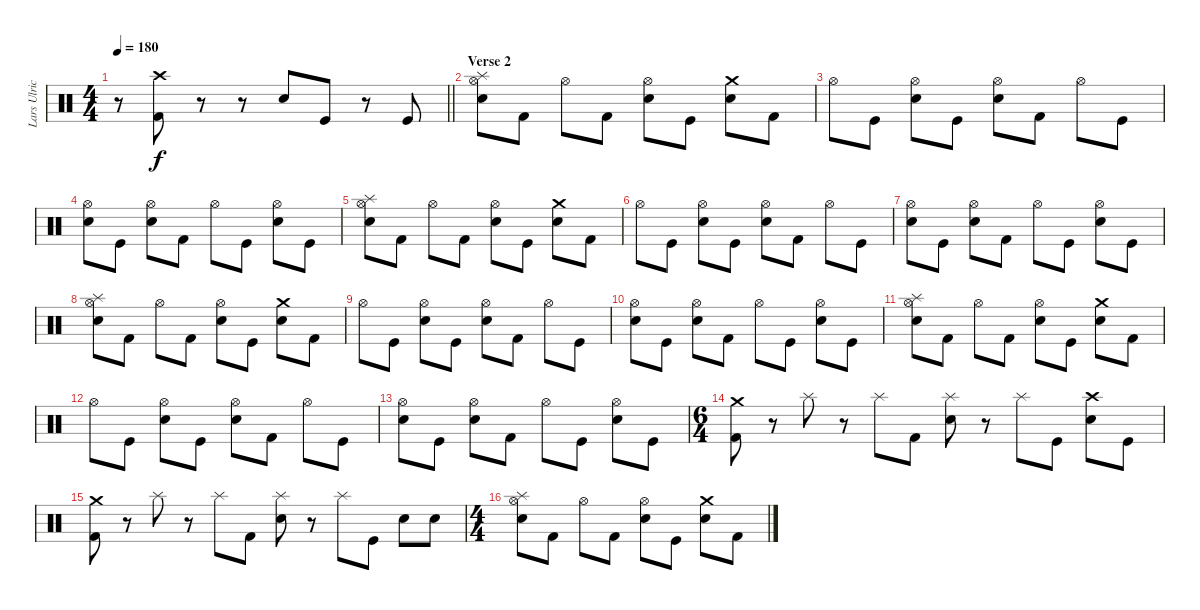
\track ("Lars Ulrich" "Lars Ulric") {instrument percussion}
\staff {score}
\articulation defaults
\ts (4 4)
\tempo 180
\clef neutral
\barLineRight lightlight
\ks c
r.8{dy f} ("Crash high (hit)" "Kick (hit) 2").8 r.8 r.8 "Electric Snare (hit)".8 "Kick (hit)".8 r.8 "Kick (hit)".8 |
\section ("" "Verse 2")
("Splash (hit)" "Hi-Hat (open)" "Electric Snare (hit)").8 "Kick (hit) 2".8 "Hi-Hat (open)".8 "Kick (hit) 2".8 ("Hi-Hat (open)" "Electric Snare (hit)").8 "Kick (hit)".8 ("Crash medium (hit)" "Electric Snare (hit)").8 "Kick (hit) 2".8 |
"Hi-Hat (open)".8 "Kick (hit)".8 ("Hi-Hat (open)" "Electric Snare (hit)").8 "Kick (hit)".8 ("Hi-Hat (open)" "Electric Snare (hit)").8 "Kick (hit) 2".8 "Hi-Hat (open)".8 "Kick (hit)".8 |
("Hi-Hat (open)" "Electric Snare (hit)").8 "Kick (hit)".8 ("Hi-Hat (open)" "Electric Snare (hit)").8 "Kick (hit) 2".8 "Hi-Hat (open)".8 "Kick (hit)".8 ("Hi-Hat (open)" "Electric Snare (hit)").8 "Kick (hit)".8 |
("Splash (hit)" "Hi-Hat (open)" "Electric Snare (hit)").8 "Kick (hit) 2".8 "Hi-Hat (open)".8 "Kick (hit) 2".8 ("Hi-Hat (open)" "Electric Snare (hit)").8 "Kick (hit)".8 ("Crash medium (hit)" "Electric Snare (hit)").8 "Kick (hit) 2".8 |
"Hi-Hat (open)".8 "Kick (hit)".8 ("Hi-Hat (open)" "Electric Snare (hit)").8 "Kick (hit)".8 ("Hi-Hat (open)" "Electric Snare (hit)").8 "Kick (hit) 2".8 "Hi-Hat (open)".8 "Kick (hit)".8 |
("Hi-Hat (open)" "Electric Snare (hit)").8 "Kick (hit)".8 ("Hi-Hat (open)" "Electric Snare (hit)").8 "Kick (hit) 2".8 "Hi-Hat (open)".8 "Kick (hit)".8 ("Hi-Hat (open)" "Electric Snare (hit)").8 "Kick (hit)".8 |
("Splash (hit)" "Hi-Hat (open)" "Electric Snare (hit)").8 "Kick (hit) 2".8 "Hi-Hat (open)".8 "Kick (hit) 2".8 ("Hi-Hat (open)" "Electric Snare (hit)").8 "Kick (hit)".8 ("Crash medium (hit)" "Electric Snare (hit)").8 "Kick (hit) 2".8 |
"Hi-Hat (open)".8 "Kick (hit)".8 ("Hi-Hat (open)" "Electric Snare (hit)").8 "Kick (hit)".8 ("Hi-Hat (open)" "Electric Snare (hit)").8 "Kick (hit) 2".8 "Hi-Hat (open)".8 "Kick (hit)".8 |
("Hi-Hat (open)" "Electric Snare (hit)").8 "Kick (hit)".8 ("Hi-Hat (open)" "Electric Snare (hit)").8 "Kick (hit) 2".8 "Hi-Hat (open)".8 "Kick (hit)".8 ("Hi-Hat (open)" "Electric Snare (hit)").8 "Kick (hit)".8 |
("Splash (hit)" "Hi-Hat (open)" "Electric Snare (hit)").8 "Kick (hit) 2".8 "Hi-Hat (open)".8 "Kick (hit) 2".8 ("Hi-Hat (open)" "Electric Snare (hit)").8 "Kick (hit)".8 ("Crash medium (hit)" "Electric Snare (hit)").8 "Kick (hit) 2".8 |
"Hi-Hat (open)".8 "Kick (hit)".8 ("Hi-Hat (open)" "Electric Snare (hit)").8 "Kick (hit)".8 ("Hi-Hat (open)" "Electric Snare (hit)").8 "Kick (hit) 2".8 "Hi-Hat (open)".8 "Kick (hit)".8 |
("Hi-Hat (open)" "Electric Snare (hit)").8 "Kick (hit)".8 ("Hi-Hat (open)" "Electric Snare (hit)").8 "Kick (hit) 2".8 "Hi-Hat (open)".8 "Kick (hit)".8 ("Hi-Hat (open)" "Electric Snare (hit)").8 "Kick (hit)".8 |
\ts (6 4)
("Crash medium (hit)" "Kick (hit) 2").8 r.8 "Splash (hit)".8 r.8 "Splash (hit)".8 "Kick (hit) 2".8 ("Splash (hit)" "Electric Snare (hit)").8 r.8 "Splash (hit)".8 "Kick (hit)".8 ("Crash high (hit)" "Electric Snare (hit)").8 "Kick (hit)".8 |
("Crash medium (hit)" "Kick (hit) 2").8 r.8 "Splash (hit)".8 r.8 "Splash (hit)".8 "Kick (hit) 2".8 ("Splash (hit)" "Electric Snare (hit)").8 r.8 "Splash (hit)".8 "Kick (hit)".8 "Electric Snare (hit)".8 "Electric Snare (hit)".8 |
\ts (4 4)
("Splash (hit)" "Hi-Hat (open)" "Electric Snare (hit)").8 "Kick (hit) 2".8 "Hi-Hat (open)".8 "Kick (hit) 2".8 ("Hi-Hat (open)" "Electric Snare (hit)").8 "Kick (hit)".8 ("Crash medium (hit)" "Electric Snare (hit)").8 "Kick (hit) 2".8
